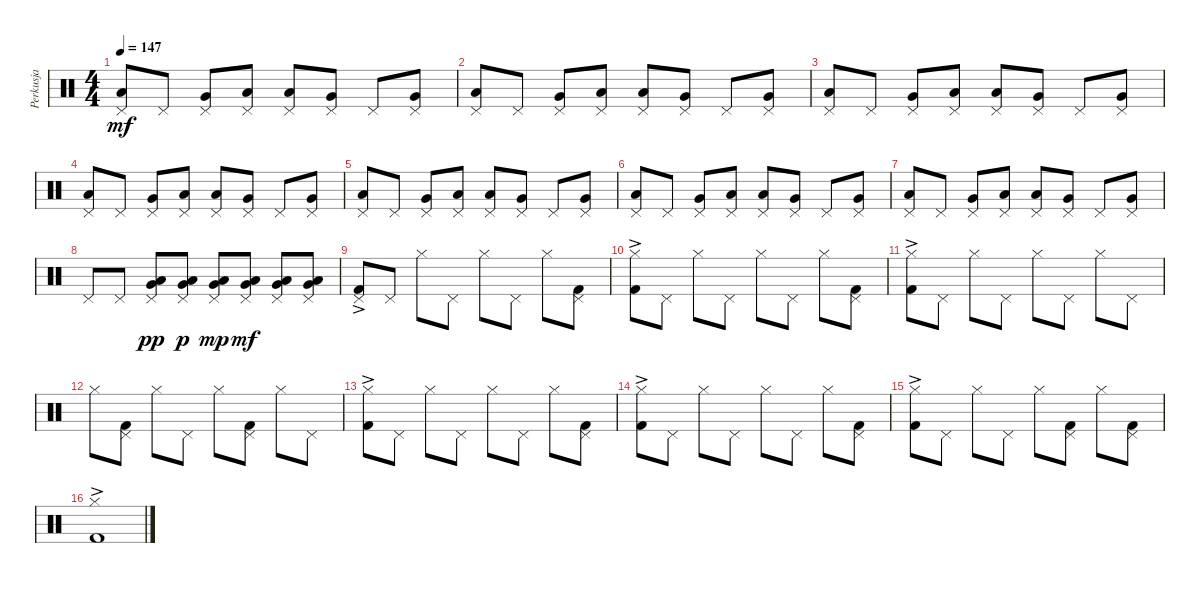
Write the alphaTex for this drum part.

\track ("Perkusja" "Perkusja") {instrument percussion}
\staff {score}
\articulation defaults
\ts (4 4)
\tempo 147
\clef neutral
\ks c
("Pedal Hi-Hat (hit)" "Low Floor Tom (hit)").8{dy mf} "Pedal Hi-Hat (hit)".8 ("Pedal Hi-Hat (hit)" "Very Low Tom (hit)").8 ("Pedal Hi-Hat (hit)" "Low Floor Tom (hit)").8 ("Pedal Hi-Hat (hit)" "Low Floor Tom (hit)").8 ("Pedal Hi-Hat (hit)" "Very Low Tom (hit)").8 "Pedal Hi-Hat (hit)".8 ("Pedal Hi-Hat (hit)" "Very Low Tom (hit)").8 |
("Pedal Hi-Hat (hit)" "Low Floor Tom (hit)").8 "Pedal Hi-Hat (hit)".8 ("Pedal Hi-Hat (hit)" "Very Low Tom (hit)").8 ("Pedal Hi-Hat (hit)" "Low Floor Tom (hit)").8 ("Pedal Hi-Hat (hit)" "Low Floor Tom (hit)").8 ("Pedal Hi-Hat (hit)" "Very Low Tom (hit)").8 "Pedal Hi-Hat (hit)".8 ("Pedal Hi-Hat (hit)" "Very Low Tom (hit)").8 |
("Pedal Hi-Hat (hit)" "Low Floor Tom (hit)").8 "Pedal Hi-Hat (hit)".8 ("Pedal Hi-Hat (hit)" "Very Low Tom (hit)").8 ("Pedal Hi-Hat (hit)" "Low Floor Tom (hit)").8 ("Pedal Hi-Hat (hit)" "Low Floor Tom (hit)").8 ("Pedal Hi-Hat (hit)" "Very Low Tom (hit)").8 "Pedal Hi-Hat (hit)".8 ("Pedal Hi-Hat (hit)" "Very Low Tom (hit)").8 |
("Pedal Hi-Hat (hit)" "Low Floor Tom (hit)").8 "Pedal Hi-Hat (hit)".8 ("Pedal Hi-Hat (hit)" "Very Low Tom (hit)").8 ("Pedal Hi-Hat (hit)" "Low Floor Tom (hit)").8 ("Pedal Hi-Hat (hit)" "Low Floor Tom (hit)").8 ("Pedal Hi-Hat (hit)" "Very Low Tom (hit)").8 "Pedal Hi-Hat (hit)".8 ("Pedal Hi-Hat (hit)" "Very Low Tom (hit)").8 |
("Pedal Hi-Hat (hit)" "Low Floor Tom (hit)").8 "Pedal Hi-Hat (hit)".8 ("Pedal Hi-Hat (hit)" "Very Low Tom (hit)").8 ("Pedal Hi-Hat (hit)" "Low Floor Tom (hit)").8 ("Pedal Hi-Hat (hit)" "Low Floor Tom (hit)").8 ("Pedal Hi-Hat (hit)" "Very Low Tom (hit)").8 "Pedal Hi-Hat (hit)".8 ("Pedal Hi-Hat (hit)" "Very Low Tom (hit)").8 |
("Pedal Hi-Hat (hit)" "Low Floor Tom (hit)").8 "Pedal Hi-Hat (hit)".8 ("Pedal Hi-Hat (hit)" "Very Low Tom (hit)").8 ("Pedal Hi-Hat (hit)" "Low Floor Tom (hit)").8 ("Pedal Hi-Hat (hit)" "Low Floor Tom (hit)").8 ("Pedal Hi-Hat (hit)" "Very Low Tom (hit)").8 "Pedal Hi-Hat (hit)".8 ("Pedal Hi-Hat (hit)" "Very Low Tom (hit)").8 |
("Pedal Hi-Hat (hit)" "Low Floor Tom (hit)").8 "Pedal Hi-Hat (hit)".8 ("Pedal Hi-Hat (hit)" "Very Low Tom (hit)").8 ("Pedal Hi-Hat (hit)" "Low Floor Tom (hit)").8 ("Pedal Hi-Hat (hit)" "Low Floor Tom (hit)").8 ("Pedal Hi-Hat (hit)" "Very Low Tom (hit)").8 "Pedal Hi-Hat (hit)".8 ("Pedal Hi-Hat (hit)" "Very Low Tom (hit)").8 |
"Pedal Hi-Hat (hit)".8 "Pedal Hi-Hat (hit)".8 ("Pedal Hi-Hat (hit)" "Very Low Tom (hit)" "Low Floor Tom (hit)").8{dy pp} ("Pedal Hi-Hat (hit)" "Very Low Tom (hit)" "Low Floor Tom (hit)").8{dy p} ("Pedal Hi-Hat (hit)" "Very Low Tom (hit)" "Low Floor Tom (hit)").8{dy mp} ("Pedal Hi-Hat (hit)" "Very Low Tom (hit)" "Low Floor Tom (hit)").8{dy mf} ("Pedal Hi-Hat (hit)" "Very Low Tom (hit)" "Low Floor Tom (hit)").8 ("Pedal Hi-Hat (hit)" "Very Low Tom (hit)" "Low Floor Tom (hit)").8 |
("Pedal Hi-Hat (hit)" "Kick (hit) 2"{ac}).8 "Pedal Hi-Hat (hit)".8 "Hi-Hat (closed)".8 "Pedal Hi-Hat (hit)".8 "Hi-Hat (closed)".8 "Pedal Hi-Hat (hit)".8 "Hi-Hat (closed)".8 ("Pedal Hi-Hat (hit)" "Kick (hit) 2").8 |
("Hi-Hat (closed)" "Kick (hit) 2"{ac}).8 "Pedal Hi-Hat (hit)".8 "Hi-Hat (closed)".8 "Pedal Hi-Hat (hit)".8 "Hi-Hat (closed)".8 "Pedal Hi-Hat (hit)".8 "Hi-Hat (closed)".8 ("Pedal Hi-Hat (hit)" "Kick (hit) 2").8 |
("Hi-Hat (closed)" "Kick (hit) 2"{ac}).8 "Pedal Hi-Hat (hit)".8 "Hi-Hat (closed)".8 "Pedal Hi-Hat (hit)".8 "Hi-Hat (closed)".8 "Pedal Hi-Hat (hit)".8 "Hi-Hat (closed)".8 "Pedal Hi-Hat (hit)".8 |
"Hi-Hat (closed)".8 ("Pedal Hi-Hat (hit)" "Kick (hit) 2").8 "Hi-Hat (closed)".8 "Pedal Hi-Hat (hit)".8 "Hi-Hat (closed)".8 ("Pedal Hi-Hat (hit)" "Kick (hit) 2").8 "Hi-Hat (closed)".8 "Pedal Hi-Hat (hit)".8 |
("Hi-Hat (closed)" "Kick (hit) 2"{ac}).8 "Pedal Hi-Hat (hit)".8 "Hi-Hat (closed)".8 "Pedal Hi-Hat (hit)".8 "Hi-Hat (closed)".8 "Pedal Hi-Hat (hit)".8 "Hi-Hat (closed)".8 ("Pedal Hi-Hat (hit)" "Kick (hit) 2").8 |
("Hi-Hat (closed)" "Kick (hit) 2"{ac}).8 "Pedal Hi-Hat (hit)".8 "Hi-Hat (closed)".8 "Pedal Hi-Hat (hit)".8 "Hi-Hat (closed)".8 "Pedal Hi-Hat (hit)".8 "Hi-Hat (closed)".8 ("Pedal Hi-Hat (hit)" "Kick (hit) 2").8 |
("Hi-Hat (closed)" "Kick (hit) 2"{ac}).8 "Pedal Hi-Hat (hit)".8 "Hi-Hat (closed)".8 "Pedal Hi-Hat (hit)".8 "Hi-Hat (closed)".8 ("Pedal Hi-Hat (hit)" "Kick (hit) 2").8 "Hi-Hat (closed)".8 ("Pedal Hi-Hat (hit)" "Kick (hit) 2").8 |
("Hi-Hat (closed)" "Kick (hit) 2"{ac}).1
